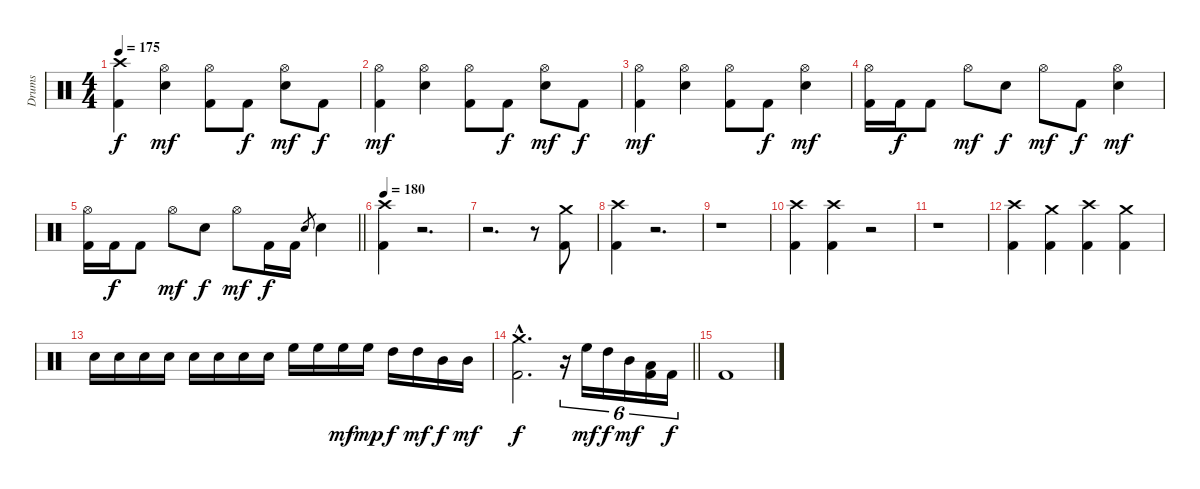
\track ("Drums" "Drums") {instrument percussion}
\staff {score}
\articulation defaults
\ts (4 4)
\tempo 175
\clef neutral
\ks c
("Crash high (hit)" "Kick (hit) 2").4{dy f} ("Hi-Hat (open)" "Electric Snare (hit)").4{dy mf} ("Hi-Hat (open)" "Kick (hit) 2").8 "Kick (hit) 2".8{dy f} ("Hi-Hat (open)" "Electric Snare (hit)").8{dy mf} "Kick (hit) 2".8{dy f} |
("Hi-Hat (open)" "Kick (hit) 2").4{dy mf} ("Hi-Hat (open)" "Electric Snare (hit)").4 ("Hi-Hat (open)" "Kick (hit) 2").8 "Kick (hit) 2".8{dy f} ("Hi-Hat (open)" "Electric Snare (hit)").8{dy mf} "Kick (hit) 2".8{dy f} |
("Hi-Hat (open)" "Kick (hit) 2").4{dy mf} ("Hi-Hat (open)" "Electric Snare (hit)").4 ("Hi-Hat (open)" "Kick (hit) 2").8 "Kick (hit) 2".8{dy f} ("Hi-Hat (open)" "Electric Snare (hit)").4{dy mf} |
("Hi-Hat (open)" "Kick (hit) 2").16 "Kick (hit) 2".16{dy f} "Kick (hit) 2".8 "Hi-Hat (open)".8{dy mf} "Electric Snare (hit)".8{dy f} "Hi-Hat (open)".8{dy mf} "Kick (hit) 2".8{dy f} ("Hi-Hat (open)" "Electric Snare (hit)").4{dy mf} |
\barLineRight lightlight
("Hi-Hat (open)" "Kick (hit) 2").16 "Kick (hit) 2".16{dy f} "Kick (hit) 2".8 "Hi-Hat (open)".8{dy mf} "Electric Snare (hit)".8{dy f} "Hi-Hat (open)".8{dy mf} "Kick (hit) 2".16{dy f} "Kick (hit) 2".16 "Electric Snare (hit)".8{gr} "Electric Snare (hit)".4 |
\tempo 180
("Crash high (hit)" "Kick (hit) 2").4 r.2{d volume 0} |
r.2{d} r.8 ("Crash medium (hit)" "Kick (hit) 2").8{volume 14} |
("Crash high (hit)" "Kick (hit) 2").4 r.2{d volume 0} |
r.1 |
("Crash high (hit)" "Kick (hit) 2").4{volume 14} ("Crash high (hit)" "Kick (hit) 2").4 r.2{volume 0} |
r.1 |
("Crash high (hit)" "Kick (hit) 2").4{volume 14} ("Crash medium (hit)" "Kick (hit) 2").4 ("Crash high (hit)" "Kick (hit) 2").4 ("Crash medium (hit)" "Kick (hit) 2").4 |
"Electric Snare (hit)".16 "Electric Snare (hit)".16 "Electric Snare (hit)".16 "Electric Snare (hit)".16 "Electric Snare (hit)".16 "Electric Snare (hit)".16 "Electric Snare (hit)".16 "Electric Snare (hit)".16 "High Floor Tom (hit)".16 "High Floor Tom (hit)".16 "High Floor Tom (hit)".16{dy mf} "High Floor Tom (hit)".16{dy mp} "High Tom (hit)".16{dy f} "High Tom (hit)".16{dy mf} "Mid Tom (hit)".16{dy f} "Mid Tom (hit)".16{dy mf} |
\barLineRight lightlight
("Crash medium (hit)"{hac} "Kick (hit) 2"{hac}).2{d dy f} r.16{tu (6 4)} "High Floor Tom (hit)".16{tu (6 4) dy mf} "High Tom (hit)".16{tu (6 4) dy f} "Mid Tom (hit)".16{tu (6 4) dy mf} ("Low Tom (hit)" "Kick (hit) 2").16{tu (6 4)} "Kick (hit) 2".16{tu (6 4) dy f} |
"Kick (hit) 2".1
